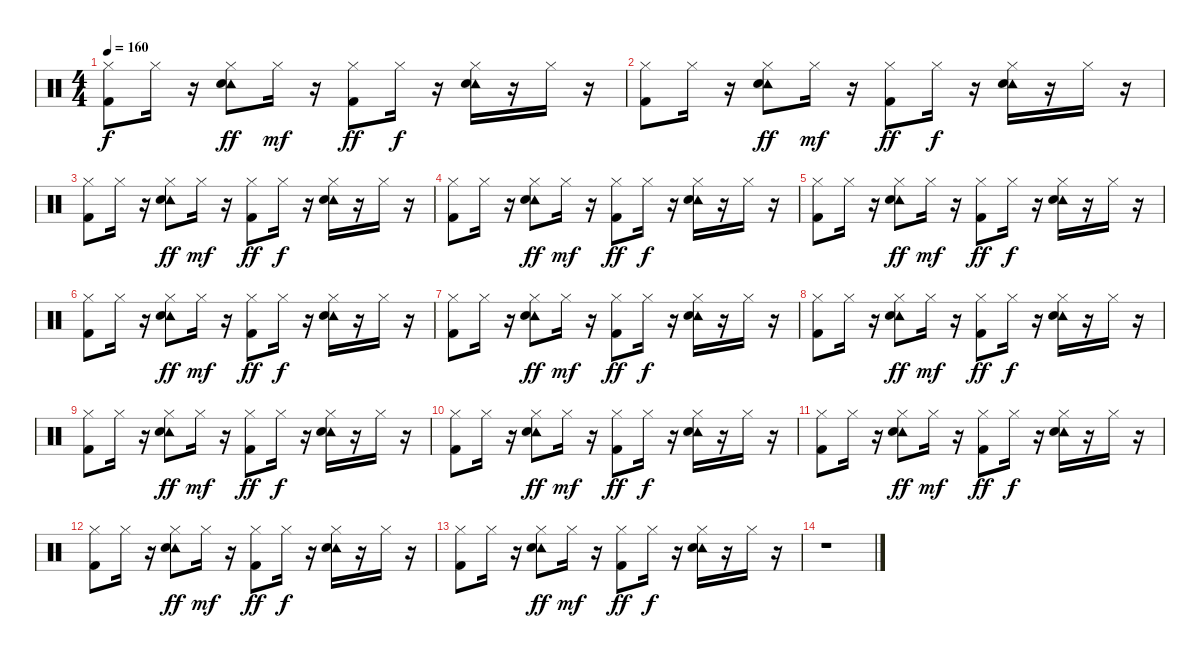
\track "" {instrument percussion}
\staff {score}
\articulation defaults
\ts (4 4)
\tempo 160
\clef neutral
\ks c
("Hi-Hat (closed)" "Kick (hit) 2").8{dy f} "Hi-Hat (closed)".16 r.16 ("Tambourine (hit)" "Hi-Hat (closed)" "Snare (hit) 2").8{dy ff} "Hi-Hat (closed)".16{dy mf} r.16 ("Hi-Hat (closed)" "Kick (hit) 2").8{dy ff} "Hi-Hat (closed)".16{dy f} r.16 ("Tambourine (hit)" "Hi-Hat (closed)" "Snare (hit) 2").16 r.16 "Hi-Hat (closed)".16 r.16 |
("Hi-Hat (closed)" "Kick (hit) 2").8 "Hi-Hat (closed)".16 r.16 ("Tambourine (hit)" "Hi-Hat (closed)" "Snare (hit) 2").8{dy ff} "Hi-Hat (closed)".16{dy mf} r.16 ("Hi-Hat (closed)" "Kick (hit) 2").8{dy ff} "Hi-Hat (closed)".16{dy f} r.16 ("Tambourine (hit)" "Hi-Hat (closed)" "Snare (hit) 2").16 r.16 "Hi-Hat (closed)".16 r.16 |
("Hi-Hat (closed)" "Kick (hit) 2").8 "Hi-Hat (closed)".16 r.16 ("Tambourine (hit)" "Hi-Hat (closed)" "Snare (hit) 2").8{dy ff} "Hi-Hat (closed)".16{dy mf} r.16 ("Hi-Hat (closed)" "Kick (hit) 2").8{dy ff} "Hi-Hat (closed)".16{dy f} r.16 ("Tambourine (hit)" "Hi-Hat (closed)" "Snare (hit) 2").16 r.16 "Hi-Hat (closed)".16 r.16 |
("Hi-Hat (closed)" "Kick (hit) 2").8 "Hi-Hat (closed)".16 r.16 ("Tambourine (hit)" "Hi-Hat (closed)" "Snare (hit) 2").8{dy ff} "Hi-Hat (closed)".16{dy mf} r.16 ("Hi-Hat (closed)" "Kick (hit) 2").8{dy ff} "Hi-Hat (closed)".16{dy f} r.16 ("Tambourine (hit)" "Hi-Hat (closed)" "Snare (hit) 2").16 r.16 "Hi-Hat (closed)".16 r.16 |
("Hi-Hat (closed)" "Kick (hit) 2").8 "Hi-Hat (closed)".16 r.16 ("Tambourine (hit)" "Hi-Hat (closed)" "Snare (hit) 2").8{dy ff} "Hi-Hat (closed)".16{dy mf} r.16 ("Hi-Hat (closed)" "Kick (hit) 2").8{dy ff} "Hi-Hat (closed)".16{dy f} r.16 ("Tambourine (hit)" "Hi-Hat (closed)" "Snare (hit) 2").16 r.16 "Hi-Hat (closed)".16 r.16 |
("Hi-Hat (closed)" "Kick (hit) 2").8 "Hi-Hat (closed)".16 r.16 ("Tambourine (hit)" "Hi-Hat (closed)" "Snare (hit) 2").8{dy ff} "Hi-Hat (closed)".16{dy mf} r.16 ("Hi-Hat (closed)" "Kick (hit) 2").8{dy ff} "Hi-Hat (closed)".16{dy f} r.16 ("Tambourine (hit)" "Hi-Hat (closed)" "Snare (hit) 2").16 r.16 "Hi-Hat (closed)".16 r.16 |
("Hi-Hat (closed)" "Kick (hit) 2").8 "Hi-Hat (closed)".16 r.16 ("Tambourine (hit)" "Hi-Hat (closed)" "Snare (hit) 2").8{dy ff} "Hi-Hat (closed)".16{dy mf} r.16 ("Hi-Hat (closed)" "Kick (hit) 2").8{dy ff} "Hi-Hat (closed)".16{dy f} r.16 ("Tambourine (hit)" "Hi-Hat (closed)" "Snare (hit) 2").16 r.16 "Hi-Hat (closed)".16 r.16 |
("Hi-Hat (closed)" "Kick (hit) 2").8 "Hi-Hat (closed)".16 r.16 ("Tambourine (hit)" "Hi-Hat (closed)" "Snare (hit) 2").8{dy ff} "Hi-Hat (closed)".16{dy mf} r.16 ("Hi-Hat (closed)" "Kick (hit) 2").8{dy ff} "Hi-Hat (closed)".16{dy f} r.16 ("Tambourine (hit)" "Hi-Hat (closed)" "Snare (hit) 2").16 r.16 "Hi-Hat (closed)".16 r.16 |
("Hi-Hat (closed)" "Kick (hit) 2").8 "Hi-Hat (closed)".16 r.16 ("Tambourine (hit)" "Hi-Hat (closed)" "Snare (hit) 2").8{dy ff} "Hi-Hat (closed)".16{dy mf} r.16 ("Hi-Hat (closed)" "Kick (hit) 2").8{dy ff} "Hi-Hat (closed)".16{dy f} r.16 ("Tambourine (hit)" "Hi-Hat (closed)" "Snare (hit) 2").16 r.16 "Hi-Hat (closed)".16 r.16 |
("Hi-Hat (closed)" "Kick (hit) 2").8 "Hi-Hat (closed)".16 r.16 ("Tambourine (hit)" "Hi-Hat (closed)" "Snare (hit) 2").8{dy ff} "Hi-Hat (closed)".16{dy mf} r.16 ("Hi-Hat (closed)" "Kick (hit) 2").8{dy ff} "Hi-Hat (closed)".16{dy f} r.16 ("Tambourine (hit)" "Hi-Hat (closed)" "Snare (hit) 2").16 r.16 "Hi-Hat (closed)".16 r.16 |
("Hi-Hat (closed)" "Kick (hit) 2").8 "Hi-Hat (closed)".16 r.16 ("Tambourine (hit)" "Hi-Hat (closed)" "Snare (hit) 2").8{dy ff} "Hi-Hat (closed)".16{dy mf} r.16 ("Hi-Hat (closed)" "Kick (hit) 2").8{dy ff} "Hi-Hat (closed)".16{dy f} r.16 ("Tambourine (hit)" "Hi-Hat (closed)" "Snare (hit) 2").16 r.16 "Hi-Hat (closed)".16 r.16 |
("Hi-Hat (closed)" "Kick (hit) 2").8 "Hi-Hat (closed)".16 r.16 ("Tambourine (hit)" "Hi-Hat (closed)" "Snare (hit) 2").8{dy ff} "Hi-Hat (closed)".16{dy mf} r.16 ("Hi-Hat (closed)" "Kick (hit) 2").8{dy ff} "Hi-Hat (closed)".16{dy f} r.16 ("Tambourine (hit)" "Hi-Hat (closed)" "Snare (hit) 2").16 r.16 "Hi-Hat (closed)".16 r.16 |
("Hi-Hat (closed)" "Kick (hit) 2").8 "Hi-Hat (closed)".16 r.16 ("Tambourine (hit)" "Hi-Hat (closed)" "Snare (hit) 2").8{dy ff} "Hi-Hat (closed)".16{dy mf} r.16 ("Hi-Hat (closed)" "Kick (hit) 2").8{dy ff} "Hi-Hat (closed)".16{dy f} r.16 ("Tambourine (hit)" "Hi-Hat (closed)" "Snare (hit) 2").16 r.16 "Hi-Hat (closed)".16 r.16 |
r.1
